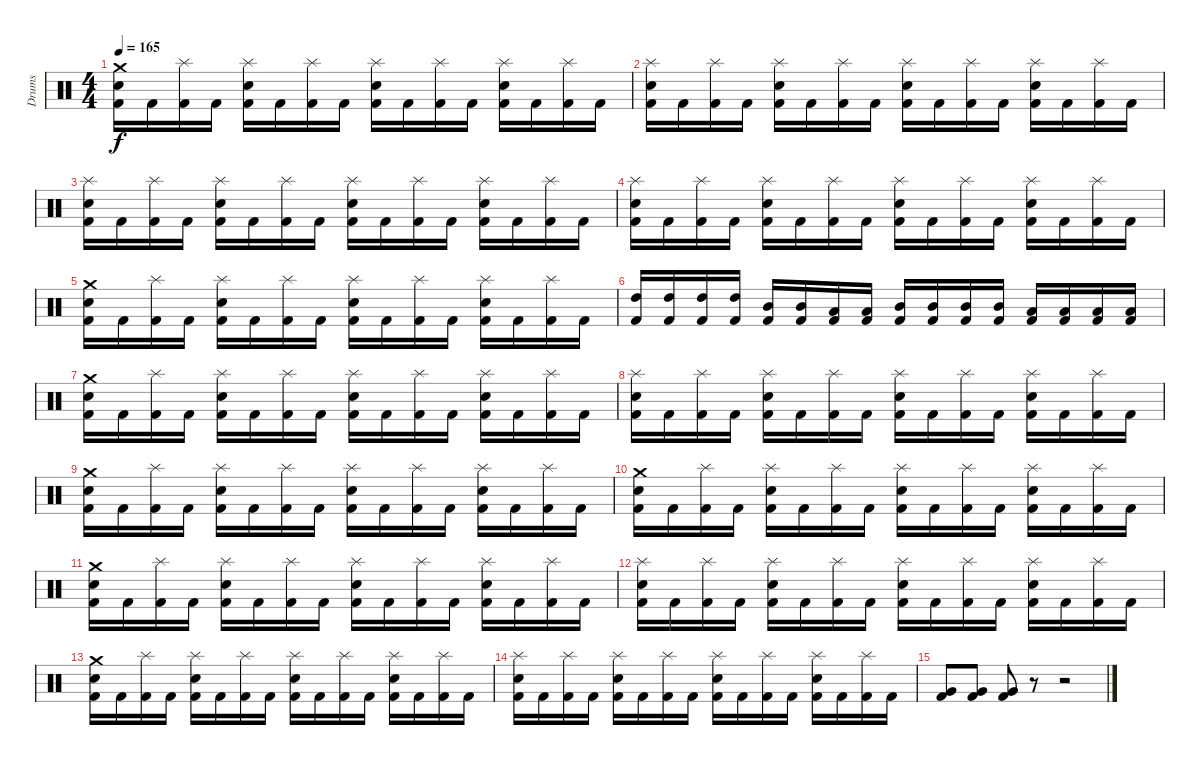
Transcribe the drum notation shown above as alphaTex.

\track ("Drums" "Drums") {instrument percussion}
\staff {score}
\articulation defaults
\ts (4 4)
\tempo 165
\clef neutral
\ks c
("Crash medium (hit)" "Snare (hit) 2" "Kick (hit) 2").16{dy f} "Kick (hit) 2".16 ("Splash (hit)" "Kick (hit) 2").16 "Kick (hit) 2".16 ("Splash (hit)" "Snare (hit) 2" "Kick (hit) 2").16 "Kick (hit) 2".16 ("Splash (hit)" "Kick (hit) 2").16 "Kick (hit) 2".16 ("Splash (hit)" "Snare (hit) 2" "Kick (hit) 2").16 "Kick (hit) 2".16 ("Splash (hit)" "Kick (hit) 2").16 "Kick (hit) 2".16 ("Splash (hit)" "Snare (hit) 2" "Kick (hit) 2").16 "Kick (hit) 2".16 ("Splash (hit)" "Kick (hit) 2").16 "Kick (hit) 2".16 |
("Splash (hit)" "Snare (hit) 2" "Kick (hit) 2").16 "Kick (hit) 2".16 ("Splash (hit)" "Kick (hit) 2").16 "Kick (hit) 2".16 ("Splash (hit)" "Snare (hit) 2" "Kick (hit) 2").16 "Kick (hit) 2".16 ("Splash (hit)" "Kick (hit) 2").16 "Kick (hit) 2".16 ("Splash (hit)" "Snare (hit) 2" "Kick (hit) 2").16 "Kick (hit) 2".16 ("Splash (hit)" "Kick (hit) 2").16 "Kick (hit) 2".16 ("Splash (hit)" "Snare (hit) 2" "Kick (hit) 2").16 "Kick (hit) 2".16 ("Splash (hit)" "Kick (hit) 2").16 "Kick (hit) 2".16 |
("Splash (hit)" "Snare (hit) 2" "Kick (hit) 2").16 "Kick (hit) 2".16 ("Splash (hit)" "Kick (hit) 2").16 "Kick (hit) 2".16 ("Splash (hit)" "Snare (hit) 2" "Kick (hit) 2").16 "Kick (hit) 2".16 ("Splash (hit)" "Kick (hit) 2").16 "Kick (hit) 2".16 ("Splash (hit)" "Snare (hit) 2" "Kick (hit) 2").16 "Kick (hit) 2".16 ("Splash (hit)" "Kick (hit) 2").16 "Kick (hit) 2".16 ("Splash (hit)" "Snare (hit) 2" "Kick (hit) 2").16 "Kick (hit) 2".16 ("Splash (hit)" "Kick (hit) 2").16 "Kick (hit) 2".16 |
("Splash (hit)" "Snare (hit) 2" "Kick (hit) 2").16 "Kick (hit) 2".16 ("Splash (hit)" "Kick (hit) 2").16 "Kick (hit) 2".16 ("Splash (hit)" "Snare (hit) 2" "Kick (hit) 2").16 "Kick (hit) 2".16 ("Splash (hit)" "Kick (hit) 2").16 "Kick (hit) 2".16 ("Splash (hit)" "Snare (hit) 2" "Kick (hit) 2").16 "Kick (hit) 2".16 ("Splash (hit)" "Kick (hit) 2").16 "Kick (hit) 2".16 ("Splash (hit)" "Snare (hit) 2" "Kick (hit) 2").16 "Kick (hit) 2".16 ("Splash (hit)" "Kick (hit) 2").16 "Kick (hit) 2".16 |
("Crash medium (hit)" "Snare (hit) 2" "Kick (hit) 2").16 "Kick (hit) 2".16 ("Splash (hit)" "Kick (hit) 2").16 "Kick (hit) 2".16 ("Splash (hit)" "Snare (hit) 2" "Kick (hit) 2").16 "Kick (hit) 2".16 ("Splash (hit)" "Kick (hit) 2").16 "Kick (hit) 2".16 ("Splash (hit)" "Snare (hit) 2" "Kick (hit) 2").16 "Kick (hit) 2".16 ("Splash (hit)" "Kick (hit) 2").16 "Kick (hit) 2".16 ("Splash (hit)" "Snare (hit) 2" "Kick (hit) 2").16 "Kick (hit) 2".16 ("Splash (hit)" "Kick (hit) 2").16 "Kick (hit) 2".16 |
("High Tom (hit)" "Kick (hit) 2").16 ("High Tom (hit)" "Kick (hit) 2").16 ("High Tom (hit)" "Kick (hit) 2").16 ("High Tom (hit)" "Kick (hit) 2").16 ("Mid Tom (hit)" "Kick (hit) 2").16 ("Mid Tom (hit)" "Kick (hit) 2").16 ("Low Tom (hit)" "Kick (hit) 2").16 ("Low Tom (hit)" "Kick (hit) 2").16 ("Mid Tom (hit)" "Kick (hit) 2").16 ("Mid Tom (hit)" "Kick (hit) 2").16 ("Mid Tom (hit)" "Kick (hit) 2").16 ("Mid Tom (hit)" "Kick (hit) 2").16 ("Low Tom (hit)" "Kick (hit) 2").16 ("Low Tom (hit)" "Kick (hit) 2").16 ("Low Tom (hit)" "Kick (hit) 2").16 ("Low Tom (hit)" "Kick (hit) 2").16 |
("Crash medium (hit)" "Snare (hit) 2" "Kick (hit) 2").16 "Kick (hit) 2".16 ("Splash (hit)" "Kick (hit) 2").16 "Kick (hit) 2".16 ("Splash (hit)" "Snare (hit) 2" "Kick (hit) 2").16 "Kick (hit) 2".16 ("Splash (hit)" "Kick (hit) 2").16 "Kick (hit) 2".16 ("Splash (hit)" "Snare (hit) 2" "Kick (hit) 2").16 "Kick (hit) 2".16 ("Splash (hit)" "Kick (hit) 2").16 "Kick (hit) 2".16 ("Splash (hit)" "Snare (hit) 2" "Kick (hit) 2").16 "Kick (hit) 2".16 ("Splash (hit)" "Kick (hit) 2").16 "Kick (hit) 2".16 |
("Splash (hit)" "Snare (hit) 2" "Kick (hit) 2").16 "Kick (hit) 2".16 ("Splash (hit)" "Kick (hit) 2").16 "Kick (hit) 2".16 ("Splash (hit)" "Snare (hit) 2" "Kick (hit) 2").16 "Kick (hit) 2".16 ("Splash (hit)" "Kick (hit) 2").16 "Kick (hit) 2".16 ("Splash (hit)" "Snare (hit) 2" "Kick (hit) 2").16 "Kick (hit) 2".16 ("Splash (hit)" "Kick (hit) 2").16 "Kick (hit) 2".16 ("Splash (hit)" "Snare (hit) 2" "Kick (hit) 2").16 "Kick (hit) 2".16 ("Splash (hit)" "Kick (hit) 2").16 "Kick (hit) 2".16 |
("Crash medium (hit)" "Snare (hit) 2" "Kick (hit) 2").16 "Kick (hit) 2".16 ("Splash (hit)" "Kick (hit) 2").16 "Kick (hit) 2".16 ("Splash (hit)" "Snare (hit) 2" "Kick (hit) 2").16 "Kick (hit) 2".16 ("Splash (hit)" "Kick (hit) 2").16 "Kick (hit) 2".16 ("Splash (hit)" "Snare (hit) 2" "Kick (hit) 2").16 "Kick (hit) 2".16 ("Splash (hit)" "Kick (hit) 2").16 "Kick (hit) 2".16 ("Splash (hit)" "Snare (hit) 2" "Kick (hit) 2").16 "Kick (hit) 2".16 ("Splash (hit)" "Kick (hit) 2").16 "Kick (hit) 2".16 |
("Crash medium (hit)" "Snare (hit) 2" "Kick (hit) 2").16 "Kick (hit) 2".16 ("Splash (hit)" "Kick (hit) 2").16 "Kick (hit) 2".16 ("Splash (hit)" "Snare (hit) 2" "Kick (hit) 2").16 "Kick (hit) 2".16 ("Splash (hit)" "Kick (hit) 2").16 "Kick (hit) 2".16 ("Splash (hit)" "Snare (hit) 2" "Kick (hit) 2").16 "Kick (hit) 2".16 ("Splash (hit)" "Kick (hit) 2").16 "Kick (hit) 2".16 ("Splash (hit)" "Snare (hit) 2" "Kick (hit) 2").16 "Kick (hit) 2".16 ("Splash (hit)" "Kick (hit) 2").16 "Kick (hit) 2".16 |
("Crash medium (hit)" "Snare (hit) 2" "Kick (hit) 2").16 "Kick (hit) 2".16 ("Splash (hit)" "Kick (hit) 2").16 "Kick (hit) 2".16 ("Splash (hit)" "Snare (hit) 2" "Kick (hit) 2").16 "Kick (hit) 2".16 ("Splash (hit)" "Kick (hit) 2").16 "Kick (hit) 2".16 ("Splash (hit)" "Snare (hit) 2" "Kick (hit) 2").16 "Kick (hit) 2".16 ("Splash (hit)" "Kick (hit) 2").16 "Kick (hit) 2".16 ("Splash (hit)" "Snare (hit) 2" "Kick (hit) 2").16 "Kick (hit) 2".16 ("Splash (hit)" "Kick (hit) 2").16 "Kick (hit) 2".16 |
("Splash (hit)" "Snare (hit) 2" "Kick (hit) 2").16 "Kick (hit) 2".16 ("Splash (hit)" "Kick (hit) 2").16 "Kick (hit) 2".16 ("Splash (hit)" "Snare (hit) 2" "Kick (hit) 2").16 "Kick (hit) 2".16 ("Splash (hit)" "Kick (hit) 2").16 "Kick (hit) 2".16 ("Splash (hit)" "Snare (hit) 2" "Kick (hit) 2").16 "Kick (hit) 2".16 ("Splash (hit)" "Kick (hit) 2").16 "Kick (hit) 2".16 ("Splash (hit)" "Snare (hit) 2" "Kick (hit) 2").16 "Kick (hit) 2".16 ("Splash (hit)" "Kick (hit) 2").16 "Kick (hit) 2".16 |
("Crash medium (hit)" "Snare (hit) 2" "Kick (hit) 2").16 "Kick (hit) 2".16 ("Splash (hit)" "Kick (hit) 2").16 "Kick (hit) 2".16 ("Splash (hit)" "Snare (hit) 2" "Kick (hit) 2").16 "Kick (hit) 2".16 ("Splash (hit)" "Kick (hit) 2").16 "Kick (hit) 2".16 ("Splash (hit)" "Snare (hit) 2" "Kick (hit) 2").16 "Kick (hit) 2".16 ("Splash (hit)" "Kick (hit) 2").16 "Kick (hit) 2".16 ("Splash (hit)" "Snare (hit) 2" "Kick (hit) 2").16 "Kick (hit) 2".16 ("Splash (hit)" "Kick (hit) 2").16 "Kick (hit) 2".16 |
("Splash (hit)" "Snare (hit) 2" "Kick (hit) 2").16 "Kick (hit) 2".16 ("Splash (hit)" "Kick (hit) 2").16 "Kick (hit) 2".16 ("Splash (hit)" "Snare (hit) 2" "Kick (hit) 2").16 "Kick (hit) 2".16 ("Splash (hit)" "Kick (hit) 2").16 "Kick (hit) 2".16 ("Splash (hit)" "Snare (hit) 2" "Kick (hit) 2").16 "Kick (hit) 2".16 ("Splash (hit)" "Kick (hit) 2").16 "Kick (hit) 2".16 ("Splash (hit)" "Snare (hit) 2" "Kick (hit) 2").16 "Kick (hit) 2".16 ("Splash (hit)" "Kick (hit) 2").16 "Kick (hit) 2".16 |
("Very Low Tom (hit)" "Kick (hit) 2").8 ("Very Low Tom (hit)" "Kick (hit) 2").8 ("Very Low Tom (hit)" "Kick (hit) 2").8 r.8 r.2
